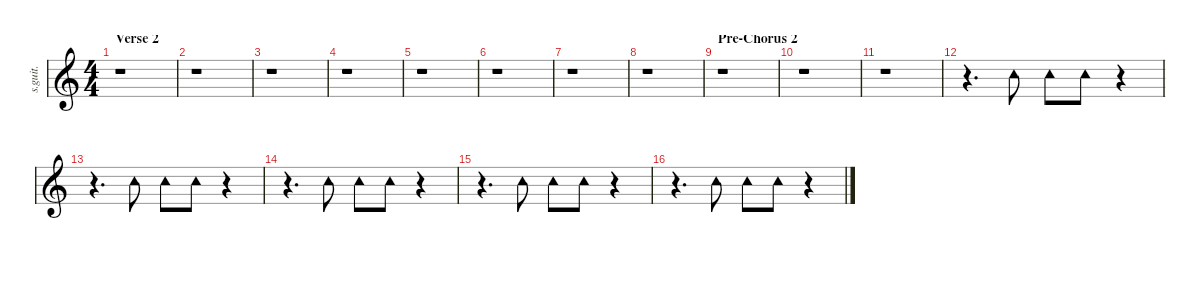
\defaultSystemsLayout 4
\hideDynamics
\bracketExtendMode nobrackets
\track ("Tambourine" "s.guit.") {instrument percussion}
\staff {score}
\articulation defaults
\ts (4 4)
\section ("" "Verse 2")
\tempo (82 hide)
\clef g2
\ks c
r.1{dy ff} |
r.1 |
r.1 |
r.1 |
r.1 |
r.1 |
r.1 |
r.1 |
\section ("" "Pre-Chorus 2")
r.1 |
r.1 |
r.1 |
r.4{d} "Tambourine (hit)".8{lyrics (0 "") lyrics (1 "") lyrics (2 "") lyrics (3 "") lyrics (4 "")} "Tambourine (hit)".8{lyrics (0 "") lyrics (1 "") lyrics (2 "") lyrics (3 "") lyrics (4 "")} "Tambourine (hit)".8{lyrics (0 "") lyrics (1 "") lyrics (2 "") lyrics (3 "") lyrics (4 "")} r.4 |
r.4{d} "Tambourine (hit)".8{lyrics (0 "") lyrics (1 "") lyrics (2 "") lyrics (3 "") lyrics (4 "")} "Tambourine (hit)".8{lyrics (0 "") lyrics (1 "") lyrics (2 "") lyrics (3 "") lyrics (4 "")} "Tambourine (hit)".8{lyrics (0 "") lyrics (1 "") lyrics (2 "") lyrics (3 "") lyrics (4 "")} r.4 |
r.4{d} "Tambourine (hit)".8{lyrics (0 "") lyrics (1 "") lyrics (2 "") lyrics (3 "") lyrics (4 "")} "Tambourine (hit)".8{lyrics (0 "") lyrics (1 "") lyrics (2 "") lyrics (3 "") lyrics (4 "")} "Tambourine (hit)".8{lyrics (0 "") lyrics (1 "") lyrics (2 "") lyrics (3 "") lyrics (4 "")} r.4 |
r.4{d} "Tambourine (hit)".8{lyrics (0 "") lyrics (1 "") lyrics (2 "") lyrics (3 "") lyrics (4 "")} "Tambourine (hit)".8{lyrics (0 "") lyrics (1 "") lyrics (2 "") lyrics (3 "") lyrics (4 "")} "Tambourine (hit)".8{lyrics (0 "") lyrics (1 "") lyrics (2 "") lyrics (3 "") lyrics (4 "")} r.4 |
r.4{d} "Tambourine (hit)".8{lyrics (0 "") lyrics (1 "") lyrics (2 "") lyrics (3 "") lyrics (4 "")} "Tambourine (hit)".8{lyrics (0 "") lyrics (1 "") lyrics (2 "") lyrics (3 "") lyrics (4 "")} "Tambourine (hit)".8{lyrics (0 "") lyrics (1 "") lyrics (2 "") lyrics (3 "") lyrics (4 "")} r.4
